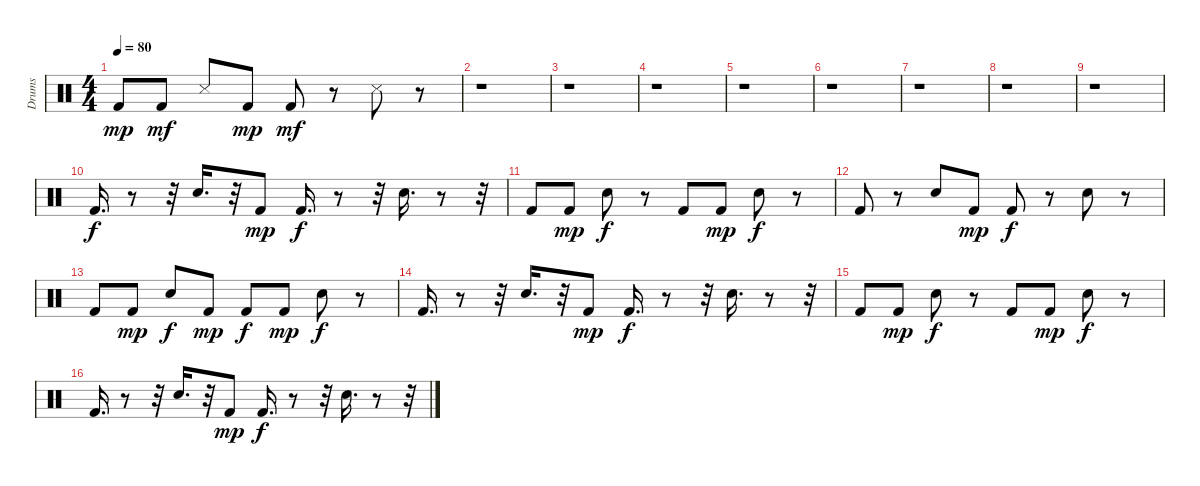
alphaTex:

\track ("Drums" "Drums") {instrument percussion}
\staff {score}
\articulation defaults
\ts (4 4)
\tempo 80
\clef neutral
\ks c "Kick (hit) 2".8{dy mp} "Kick (hit) 2".8{dy mf} "Snare (side stick) 3".8 "Kick (hit) 2".8{dy mp} "Kick (hit) 2".8{dy mf}
r.8 "Snare (side stick) 3".8 r.8 |
r.1 |
r.1 |
r.1 |
r.1 |
r.1 |
r.1 |
r.1 |
r.1 |
"Kick (hit) 2".16{d dy f} r.8 r.32 "Electric Snare (hit)".16{d} r.32 "Kick (hit) 2".8{dy mp} "Kick (hit) 2".16{d dy f} r.8 r.32 "Electric Snare (hit)".16{d} r.8 r.32 |
"Kick (hit) 2".8 "Kick (hit) 2".8{dy mp} "Electric Snare (hit)".8{dy f} r.8 "Kick (hit) 2".8 "Kick (hit) 2".8{dy mp} "Electric Snare (hit)".8{dy f} r.8 |
"Kick (hit) 2".8 r.8 "Electric Snare (hit)".8 "Kick (hit) 2".8{dy mp} "Kick (hit) 2".8{dy f} r.8 "Electric Snare (hit)".8 r.8 |
"Kick (hit) 2".8 "Kick (hit) 2".8{dy mp} "Electric Snare (hit)".8{dy f} "Kick (hit) 2".8{dy mp} "Kick (hit) 2".8{dy f} "Kick (hit) 2".8{dy mp} "Electric Snare (hit)".8{dy f} r.8 |
"Kick (hit) 2".16{d} r.8 r.32 "Electric Snare (hit)".16{d} r.32 "Kick (hit) 2".8{dy mp} "Kick (hit) 2".16{d dy f} r.8 r.32 "Electric Snare (hit)".16{d} r.8 r.32 |
"Kick (hit) 2".8 "Kick (hit) 2".8{dy mp} "Electric Snare (hit)".8{dy f} r.8 "Kick (hit) 2".8 "Kick (hit) 2".8{dy mp} "Electric Snare (hit)".8{dy f} r.8 |
"Kick (hit) 2".16{d} r.8 r.32 "Electric Snare (hit)".16{d} r.32 "Kick (hit) 2".8{dy mp} "Kick (hit) 2".16{d dy f} r.8 r.32 "Electric Snare (hit)".16{d} r.8 r.32
